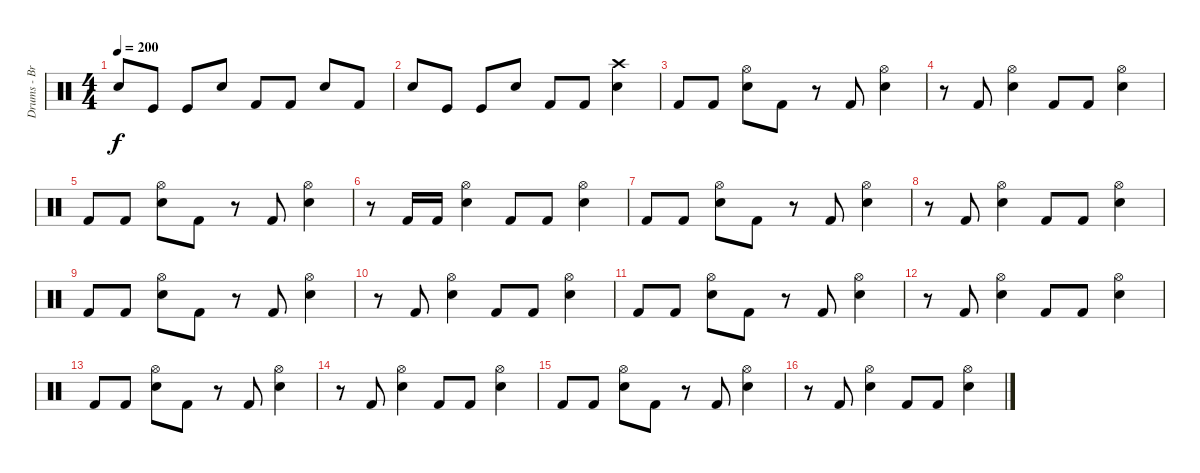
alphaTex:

\track ("Drums - Brandon Barnes" "Drums - Br") {instrument percussion}
\staff {score}
\articulation defaults
\ts (4 4)
\tempo 200
\clef neutral
\ks c "Snare (hit) 2".8{dy f} "Kick (hit)".8 "Kick (hit)".8 "Snare (hit) 2".8 "Kick (hit) 2".8 "Kick (hit) 2".8 "Snare (hit) 2".8 "Kick (hit) 2".8
|
"Snare (hit) 2".8 "Kick (hit)".8 "Kick (hit)".8 "Snare (hit) 2".8 "Kick (hit) 2".8 "Kick (hit) 2".8 ("Snare (hit) 2" "Crash high (hit)").4 |
"Kick (hit) 2".8 "Kick (hit) 2".8 ("Snare (hit) 2" "Hi-Hat (open)").8 "Kick (hit) 2".8 r.8 "Kick (hit) 2".8 ("Snare (hit) 2" "Hi-Hat (open)").4 |
r.8 "Kick (hit) 2".8 ("Snare (hit) 2" "Hi-Hat (open)").4 "Kick (hit) 2".8 "Kick (hit) 2".8 ("Snare (hit) 2" "Hi-Hat (open)").4 |
"Kick (hit) 2".8 "Kick (hit) 2".8 ("Snare (hit) 2" "Hi-Hat (open)").8 "Kick (hit) 2".8 r.8 "Kick (hit) 2".8 ("Snare (hit) 2" "Hi-Hat (open)").4 |
r.8 "Kick (hit) 2".16 "Kick (hit) 2".16 ("Snare (hit) 2" "Hi-Hat (open)").4 "Kick (hit) 2".8 "Kick (hit) 2".8 ("Snare (hit) 2" "Hi-Hat (open)").4 |
"Kick (hit) 2".8 "Kick (hit) 2".8 ("Snare (hit) 2" "Hi-Hat (open)").8 "Kick (hit) 2".8 r.8 "Kick (hit) 2".8 ("Snare (hit) 2" "Hi-Hat (open)").4 |
r.8 "Kick (hit) 2".8 ("Snare (hit) 2" "Hi-Hat (open)").4 "Kick (hit) 2".8 "Kick (hit) 2".8 ("Snare (hit) 2" "Hi-Hat (open)").4 |
"Kick (hit) 2".8 "Kick (hit) 2".8 ("Snare (hit) 2" "Hi-Hat (open)").8 "Kick (hit) 2".8 r.8 "Kick (hit) 2".8 ("Snare (hit) 2" "Hi-Hat (open)").4 |
r.8 "Kick (hit) 2".8 ("Snare (hit) 2" "Hi-Hat (open)").4 "Kick (hit) 2".8 "Kick (hit) 2".8 ("Snare (hit) 2" "Hi-Hat (open)").4 |
"Kick (hit) 2".8 "Kick (hit) 2".8 ("Snare (hit) 2" "Hi-Hat (open)").8 "Kick (hit) 2".8 r.8 "Kick (hit) 2".8 ("Snare (hit) 2" "Hi-Hat (open)").4 |
r.8 "Kick (hit) 2".8 ("Snare (hit) 2" "Hi-Hat (open)").4 "Kick (hit) 2".8 "Kick (hit) 2".8 ("Snare (hit) 2" "Hi-Hat (open)").4 |
"Kick (hit) 2".8 "Kick (hit) 2".8 ("Snare (hit) 2" "Hi-Hat (open)").8 "Kick (hit) 2".8 r.8 "Kick (hit) 2".8 ("Snare (hit) 2" "Hi-Hat (open)").4 |
r.8 "Kick (hit) 2".8 ("Snare (hit) 2" "Hi-Hat (open)").4 "Kick (hit) 2".8 "Kick (hit) 2".8 ("Snare (hit) 2" "Hi-Hat (open)").4 |
"Kick (hit) 2".8 "Kick (hit) 2".8 ("Snare (hit) 2" "Hi-Hat (open)").8 "Kick (hit) 2".8 r.8 "Kick (hit) 2".8 ("Snare (hit) 2" "Hi-Hat (open)").4 |
r.8 "Kick (hit) 2".8 ("Snare (hit) 2" "Hi-Hat (open)").4 "Kick (hit) 2".8 "Kick (hit) 2".8 ("Snare (hit) 2" "Hi-Hat (open)").4
